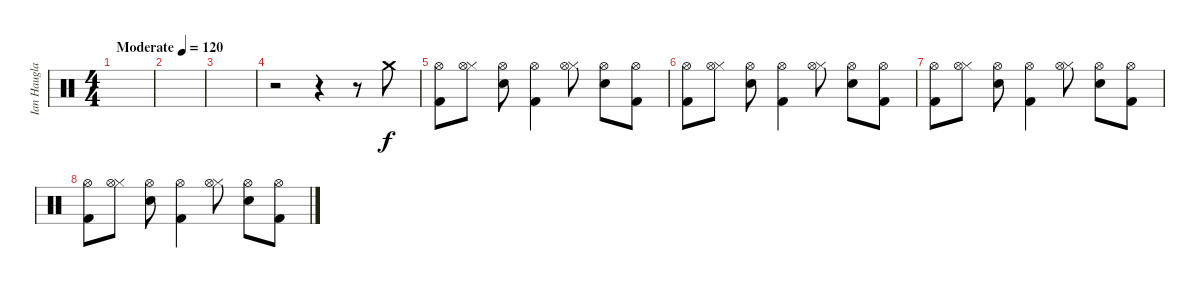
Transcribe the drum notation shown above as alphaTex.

\track ("Ian Haugland" "Ian Haugla") {instrument percussion}
\staff {score}
\articulation defaults
\ts (4 4)
\tempo (120 "Moderate")
\clef neutral
\ks c
|
|
|
r.2 r.4 r.8 "Crash medium (hit)".8 |
("Kick (hit) 2" "Hi-Hat (open)").8 ("Hi-Hat (closed)" "Hi-Hat (open)").8 ("Electric Snare (hit)" "Hi-Hat (open)").8 ("Kick (hit) 2" "Hi-Hat (open)").4 ("Hi-Hat (closed)" "Hi-Hat (open)").8 ("Electric Snare (hit)" "Hi-Hat (open)").8 ("Kick (hit) 2" "Hi-Hat (open)").8 |
("Kick (hit) 2" "Hi-Hat (open)").8 ("Hi-Hat (closed)" "Hi-Hat (open)").8 ("Electric Snare (hit)" "Hi-Hat (open)").8 ("Kick (hit) 2" "Hi-Hat (open)").4 ("Hi-Hat (closed)" "Hi-Hat (open)").8 ("Electric Snare (hit)" "Hi-Hat (open)").8 ("Kick (hit) 2" "Hi-Hat (open)").8 |
("Kick (hit) 2" "Hi-Hat (open)").8 ("Hi-Hat (closed)" "Hi-Hat (open)").8 ("Electric Snare (hit)" "Hi-Hat (open)").8 ("Kick (hit) 2" "Hi-Hat (open)").4 ("Hi-Hat (closed)" "Hi-Hat (open)").8 ("Electric Snare (hit)" "Hi-Hat (open)").8 ("Kick (hit) 2" "Hi-Hat (open)").8 |
("Kick (hit) 2" "Hi-Hat (open)").8 ("Hi-Hat (closed)" "Hi-Hat (open)").8 ("Electric Snare (hit)" "Hi-Hat (open)").8 ("Kick (hit) 2" "Hi-Hat (open)").4 ("Hi-Hat (closed)" "Hi-Hat (open)").8 ("Electric Snare (hit)" "Hi-Hat (open)").8 ("Kick (hit) 2" "Hi-Hat (open)").8
